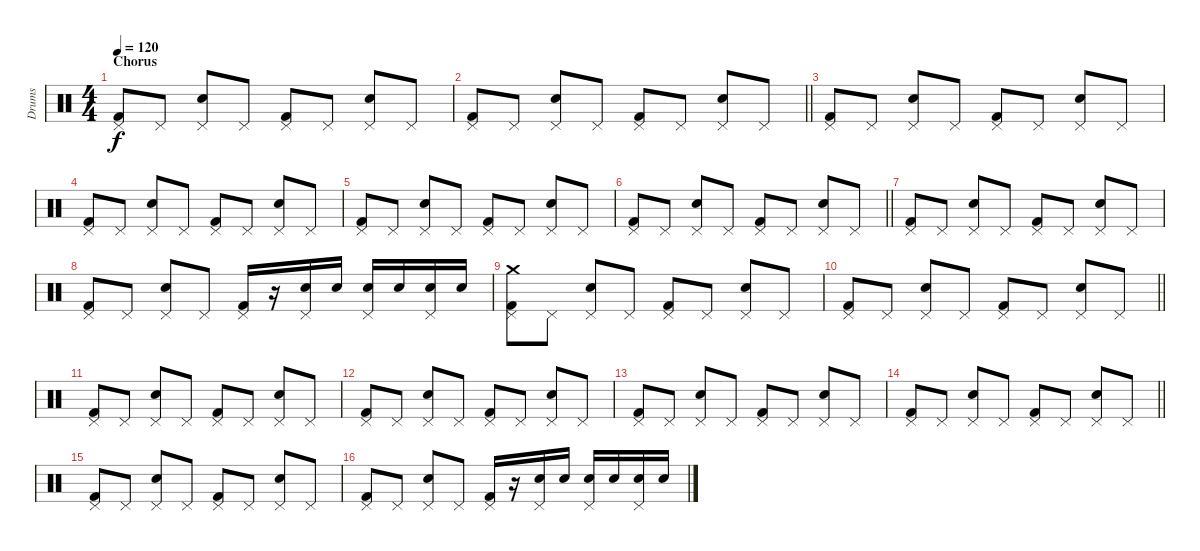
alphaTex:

\track ("Drums" "Drums") {instrument percussion}
\staff {score}
\articulation defaults
\ts (4 4)
\section ("" "Chorus")
\tempo 120
\clef neutral
\ks c
("Kick (hit) 2" "Pedal Hi-Hat (hit)").8{dy f} "Pedal Hi-Hat (hit)".8 ("Snare (hit) 2" "Pedal Hi-Hat (hit)").8 "Pedal Hi-Hat (hit)".8 ("Kick (hit) 2" "Pedal Hi-Hat (hit)").8 "Pedal Hi-Hat (hit)".8 ("Snare (hit) 2" "Pedal Hi-Hat (hit)").8 "Pedal Hi-Hat (hit)".8 |
\barLineRight lightlight
("Kick (hit) 2" "Pedal Hi-Hat (hit)").8 "Pedal Hi-Hat (hit)".8 ("Snare (hit) 2" "Pedal Hi-Hat (hit)").8 "Pedal Hi-Hat (hit)".8 ("Kick (hit) 2" "Pedal Hi-Hat (hit)").8 "Pedal Hi-Hat (hit)".8 ("Snare (hit) 2" "Pedal Hi-Hat (hit)").8 "Pedal Hi-Hat (hit)".8 |
("Kick (hit) 2" "Pedal Hi-Hat (hit)").8 "Pedal Hi-Hat (hit)".8 ("Snare (hit) 2" "Pedal Hi-Hat (hit)").8 "Pedal Hi-Hat (hit)".8 ("Kick (hit) 2" "Pedal Hi-Hat (hit)").8 "Pedal Hi-Hat (hit)".8 ("Snare (hit) 2" "Pedal Hi-Hat (hit)").8 "Pedal Hi-Hat (hit)".8 |
("Kick (hit) 2" "Pedal Hi-Hat (hit)").8 "Pedal Hi-Hat (hit)".8 ("Snare (hit) 2" "Pedal Hi-Hat (hit)").8 "Pedal Hi-Hat (hit)".8 ("Kick (hit) 2" "Pedal Hi-Hat (hit)").8 "Pedal Hi-Hat (hit)".8 ("Snare (hit) 2" "Pedal Hi-Hat (hit)").8 "Pedal Hi-Hat (hit)".8 |
("Kick (hit) 2" "Pedal Hi-Hat (hit)").8 "Pedal Hi-Hat (hit)".8 ("Snare (hit) 2" "Pedal Hi-Hat (hit)").8 "Pedal Hi-Hat (hit)".8 ("Kick (hit) 2" "Pedal Hi-Hat (hit)").8 "Pedal Hi-Hat (hit)".8 ("Snare (hit) 2" "Pedal Hi-Hat (hit)").8 "Pedal Hi-Hat (hit)".8 |
\barLineRight lightlight
("Kick (hit) 2" "Pedal Hi-Hat (hit)").8 "Pedal Hi-Hat (hit)".8 ("Snare (hit) 2" "Pedal Hi-Hat (hit)").8 "Pedal Hi-Hat (hit)".8 ("Kick (hit) 2" "Pedal Hi-Hat (hit)").8 "Pedal Hi-Hat (hit)".8 ("Snare (hit) 2" "Pedal Hi-Hat (hit)").8 "Pedal Hi-Hat (hit)".8 |
("Kick (hit) 2" "Pedal Hi-Hat (hit)").8 "Pedal Hi-Hat (hit)".8 ("Snare (hit) 2" "Pedal Hi-Hat (hit)").8 "Pedal Hi-Hat (hit)".8 ("Kick (hit) 2" "Pedal Hi-Hat (hit)").8 "Pedal Hi-Hat (hit)".8 ("Snare (hit) 2" "Pedal Hi-Hat (hit)").8 "Pedal Hi-Hat (hit)".8 |
("Kick (hit) 2" "Pedal Hi-Hat (hit)").8 "Pedal Hi-Hat (hit)".8 ("Snare (hit) 2" "Pedal Hi-Hat (hit)").8 "Pedal Hi-Hat (hit)".8 ("Kick (hit) 2" "Pedal Hi-Hat (hit)").16 r.16 ("Snare (hit) 2" "Pedal Hi-Hat (hit)").16 "Snare (hit) 2".16 ("Snare (hit) 2" "Pedal Hi-Hat (hit)").16 "Snare (hit) 2".16 ("Snare (hit) 2" "Pedal Hi-Hat (hit)").16 "Snare (hit) 2".16 |
("Kick (hit) 2" "Pedal Hi-Hat (hit)" "Crash medium (hit)").8 "Pedal Hi-Hat (hit)".8 ("Snare (hit) 2" "Pedal Hi-Hat (hit)").8 "Pedal Hi-Hat (hit)".8 ("Kick (hit) 2" "Pedal Hi-Hat (hit)").8 "Pedal Hi-Hat (hit)".8 ("Snare (hit) 2" "Pedal Hi-Hat (hit)").8 "Pedal Hi-Hat (hit)".8 |
\barLineRight lightlight
("Kick (hit) 2" "Pedal Hi-Hat (hit)").8 "Pedal Hi-Hat (hit)".8 ("Snare (hit) 2" "Pedal Hi-Hat (hit)").8 "Pedal Hi-Hat (hit)".8 ("Kick (hit) 2" "Pedal Hi-Hat (hit)").8 "Pedal Hi-Hat (hit)".8 ("Snare (hit) 2" "Pedal Hi-Hat (hit)").8 "Pedal Hi-Hat (hit)".8 |
("Kick (hit) 2" "Pedal Hi-Hat (hit)").8 "Pedal Hi-Hat (hit)".8 ("Snare (hit) 2" "Pedal Hi-Hat (hit)").8 "Pedal Hi-Hat (hit)".8 ("Kick (hit) 2" "Pedal Hi-Hat (hit)").8 "Pedal Hi-Hat (hit)".8 ("Snare (hit) 2" "Pedal Hi-Hat (hit)").8 "Pedal Hi-Hat (hit)".8 |
("Kick (hit) 2" "Pedal Hi-Hat (hit)").8 "Pedal Hi-Hat (hit)".8 ("Snare (hit) 2" "Pedal Hi-Hat (hit)").8 "Pedal Hi-Hat (hit)".8 ("Kick (hit) 2" "Pedal Hi-Hat (hit)").8 "Pedal Hi-Hat (hit)".8 ("Snare (hit) 2" "Pedal Hi-Hat (hit)").8 "Pedal Hi-Hat (hit)".8 |
("Kick (hit) 2" "Pedal Hi-Hat (hit)").8 "Pedal Hi-Hat (hit)".8 ("Snare (hit) 2" "Pedal Hi-Hat (hit)").8 "Pedal Hi-Hat (hit)".8 ("Kick (hit) 2" "Pedal Hi-Hat (hit)").8 "Pedal Hi-Hat (hit)".8 ("Snare (hit) 2" "Pedal Hi-Hat (hit)").8 "Pedal Hi-Hat (hit)".8 |
\barLineRight lightlight
("Kick (hit) 2" "Pedal Hi-Hat (hit)").8 "Pedal Hi-Hat (hit)".8 ("Snare (hit) 2" "Pedal Hi-Hat (hit)").8 "Pedal Hi-Hat (hit)".8 ("Kick (hit) 2" "Pedal Hi-Hat (hit)").8 "Pedal Hi-Hat (hit)".8 ("Snare (hit) 2" "Pedal Hi-Hat (hit)").8 "Pedal Hi-Hat (hit)".8 |
("Kick (hit) 2" "Pedal Hi-Hat (hit)").8 "Pedal Hi-Hat (hit)".8 ("Snare (hit) 2" "Pedal Hi-Hat (hit)").8 "Pedal Hi-Hat (hit)".8 ("Kick (hit) 2" "Pedal Hi-Hat (hit)").8 "Pedal Hi-Hat (hit)".8 ("Snare (hit) 2" "Pedal Hi-Hat (hit)").8 "Pedal Hi-Hat (hit)".8 |
("Kick (hit) 2" "Pedal Hi-Hat (hit)").8 "Pedal Hi-Hat (hit)".8 ("Snare (hit) 2" "Pedal Hi-Hat (hit)").8 "Pedal Hi-Hat (hit)".8 ("Kick (hit) 2" "Pedal Hi-Hat (hit)").16 r.16 ("Snare (hit) 2" "Pedal Hi-Hat (hit)").16 "Snare (hit) 2".16 ("Snare (hit) 2" "Pedal Hi-Hat (hit)").16 "Snare (hit) 2".16 ("Snare (hit) 2" "Pedal Hi-Hat (hit)").16 "Snare (hit) 2".16
